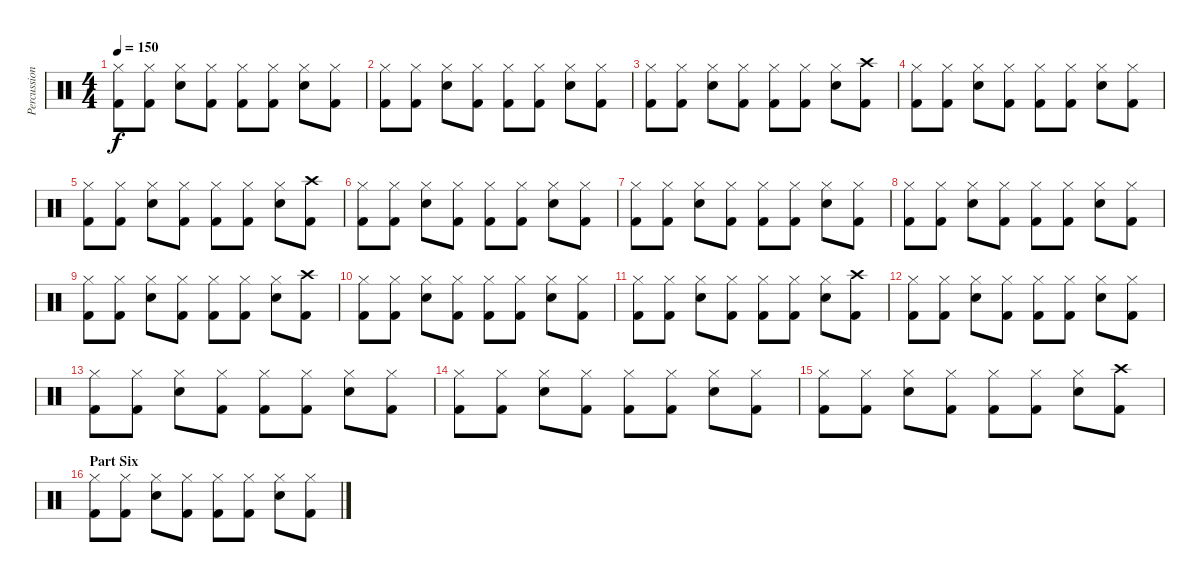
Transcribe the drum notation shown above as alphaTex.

\track ("Percussion" "Percussion") {instrument percussion}
\staff {score}
\articulation defaults
\ts (4 4)
\tempo 150
\clef neutral
\ks c
("Hi-Hat (closed)" "Kick (hit) 2").8{dy f} ("Hi-Hat (closed)" "Kick (hit) 2").8 ("Hi-Hat (closed)" "Electric Snare (hit)").8 ("Hi-Hat (closed)" "Kick (hit) 2").8 ("Hi-Hat (closed)" "Kick (hit) 2").8 ("Hi-Hat (closed)" "Kick (hit) 2").8 ("Hi-Hat (closed)" "Electric Snare (hit)").8 ("Hi-Hat (closed)" "Kick (hit) 2").8 |
("Hi-Hat (closed)" "Kick (hit) 2").8 ("Hi-Hat (closed)" "Kick (hit) 2").8 ("Hi-Hat (closed)" "Electric Snare (hit)").8 ("Hi-Hat (closed)" "Kick (hit) 2").8 ("Hi-Hat (closed)" "Kick (hit) 2").8 ("Hi-Hat (closed)" "Kick (hit) 2").8 ("Hi-Hat (closed)" "Electric Snare (hit)").8 ("Hi-Hat (closed)" "Kick (hit) 2").8 |
("Hi-Hat (closed)" "Kick (hit) 2").8 ("Hi-Hat (closed)" "Kick (hit) 2").8 ("Hi-Hat (closed)" "Electric Snare (hit)").8 ("Hi-Hat (closed)" "Kick (hit) 2").8 ("Hi-Hat (closed)" "Kick (hit) 2").8 ("Hi-Hat (closed)" "Kick (hit) 2").8 ("Hi-Hat (closed)" "Electric Snare (hit)").8 ("Crash high (hit)" "Kick (hit) 2").8 |
("Hi-Hat (closed)" "Kick (hit) 2").8 ("Hi-Hat (closed)" "Kick (hit) 2").8 ("Hi-Hat (closed)" "Electric Snare (hit)").8 ("Hi-Hat (closed)" "Kick (hit) 2").8 ("Hi-Hat (closed)" "Kick (hit) 2").8 ("Hi-Hat (closed)" "Kick (hit) 2").8 ("Hi-Hat (closed)" "Electric Snare (hit)").8 ("Hi-Hat (closed)" "Kick (hit) 2").8 |
("Hi-Hat (closed)" "Kick (hit) 2").8 ("Hi-Hat (closed)" "Kick (hit) 2").8 ("Hi-Hat (closed)" "Electric Snare (hit)").8 ("Hi-Hat (closed)" "Kick (hit) 2").8 ("Hi-Hat (closed)" "Kick (hit) 2").8 ("Hi-Hat (closed)" "Kick (hit) 2").8 ("Hi-Hat (closed)" "Electric Snare (hit)").8 ("Crash high (hit)" "Kick (hit) 2").8 |
("Hi-Hat (closed)" "Kick (hit) 2").8 ("Hi-Hat (closed)" "Kick (hit) 2").8 ("Hi-Hat (closed)" "Electric Snare (hit)").8 ("Hi-Hat (closed)" "Kick (hit) 2").8 ("Hi-Hat (closed)" "Kick (hit) 2").8 ("Hi-Hat (closed)" "Kick (hit) 2").8 ("Hi-Hat (closed)" "Electric Snare (hit)").8 ("Hi-Hat (closed)" "Kick (hit) 2").8 |
("Hi-Hat (closed)" "Kick (hit) 2").8 ("Hi-Hat (closed)" "Kick (hit) 2").8 ("Hi-Hat (closed)" "Electric Snare (hit)").8 ("Hi-Hat (closed)" "Kick (hit) 2").8 ("Hi-Hat (closed)" "Kick (hit) 2").8 ("Hi-Hat (closed)" "Kick (hit) 2").8 ("Hi-Hat (closed)" "Electric Snare (hit)").8 ("Hi-Hat (closed)" "Kick (hit) 2").8 |
("Hi-Hat (closed)" "Kick (hit) 2").8 ("Hi-Hat (closed)" "Kick (hit) 2").8 ("Hi-Hat (closed)" "Electric Snare (hit)").8 ("Hi-Hat (closed)" "Kick (hit) 2").8 ("Hi-Hat (closed)" "Kick (hit) 2").8 ("Hi-Hat (closed)" "Kick (hit) 2").8 ("Hi-Hat (closed)" "Electric Snare (hit)").8 ("Hi-Hat (closed)" "Kick (hit) 2").8 |
("Hi-Hat (closed)" "Kick (hit) 2").8 ("Hi-Hat (closed)" "Kick (hit) 2").8 ("Hi-Hat (closed)" "Electric Snare (hit)").8 ("Hi-Hat (closed)" "Kick (hit) 2").8 ("Hi-Hat (closed)" "Kick (hit) 2").8 ("Hi-Hat (closed)" "Kick (hit) 2").8 ("Hi-Hat (closed)" "Electric Snare (hit)").8 ("Crash high (hit)" "Kick (hit) 2").8 |
("Hi-Hat (closed)" "Kick (hit) 2").8 ("Hi-Hat (closed)" "Kick (hit) 2").8 ("Hi-Hat (closed)" "Electric Snare (hit)").8 ("Hi-Hat (closed)" "Kick (hit) 2").8 ("Hi-Hat (closed)" "Kick (hit) 2").8 ("Hi-Hat (closed)" "Kick (hit) 2").8 ("Hi-Hat (closed)" "Electric Snare (hit)").8 ("Hi-Hat (closed)" "Kick (hit) 2").8 |
("Hi-Hat (closed)" "Kick (hit) 2").8 ("Hi-Hat (closed)" "Kick (hit) 2").8 ("Hi-Hat (closed)" "Electric Snare (hit)").8 ("Hi-Hat (closed)" "Kick (hit) 2").8 ("Hi-Hat (closed)" "Kick (hit) 2").8 ("Hi-Hat (closed)" "Kick (hit) 2").8 ("Hi-Hat (closed)" "Electric Snare (hit)").8 ("Crash high (hit)" "Kick (hit) 2").8 |
("Hi-Hat (closed)" "Kick (hit) 2").8 ("Hi-Hat (closed)" "Kick (hit) 2").8 ("Hi-Hat (closed)" "Electric Snare (hit)").8 ("Hi-Hat (closed)" "Kick (hit) 2").8 ("Hi-Hat (closed)" "Kick (hit) 2").8 ("Hi-Hat (closed)" "Kick (hit) 2").8 ("Hi-Hat (closed)" "Electric Snare (hit)").8 ("Hi-Hat (closed)" "Kick (hit) 2").8 |
("Hi-Hat (closed)" "Kick (hit) 2").8 ("Hi-Hat (closed)" "Kick (hit) 2").8 ("Hi-Hat (closed)" "Electric Snare (hit)").8 ("Hi-Hat (closed)" "Kick (hit) 2").8 ("Hi-Hat (closed)" "Kick (hit) 2").8 ("Hi-Hat (closed)" "Kick (hit) 2").8 ("Hi-Hat (closed)" "Electric Snare (hit)").8 ("Hi-Hat (closed)" "Kick (hit) 2").8 |
("Hi-Hat (closed)" "Kick (hit) 2").8 ("Hi-Hat (closed)" "Kick (hit) 2").8 ("Hi-Hat (closed)" "Electric Snare (hit)").8 ("Hi-Hat (closed)" "Kick (hit) 2").8 ("Hi-Hat (closed)" "Kick (hit) 2").8 ("Hi-Hat (closed)" "Kick (hit) 2").8 ("Hi-Hat (closed)" "Electric Snare (hit)").8 ("Hi-Hat (closed)" "Kick (hit) 2").8 |
("Hi-Hat (closed)" "Kick (hit) 2").8 ("Hi-Hat (closed)" "Kick (hit) 2").8 ("Hi-Hat (closed)" "Electric Snare (hit)").8 ("Hi-Hat (closed)" "Kick (hit) 2").8 ("Hi-Hat (closed)" "Kick (hit) 2").8 ("Hi-Hat (closed)" "Kick (hit) 2").8 ("Hi-Hat (closed)" "Electric Snare (hit)").8 ("Crash high (hit)" "Kick (hit) 2").8 |
\section ("" "Part Six")
("Hi-Hat (closed)" "Kick (hit) 2").8 ("Hi-Hat (closed)" "Kick (hit) 2").8 ("Hi-Hat (closed)" "Electric Snare (hit)").8 ("Hi-Hat (closed)" "Kick (hit) 2").8 ("Hi-Hat (closed)" "Kick (hit) 2").8 ("Hi-Hat (closed)" "Kick (hit) 2").8 ("Hi-Hat (closed)" "Electric Snare (hit)").8 ("Hi-Hat (closed)" "Kick (hit) 2").8
